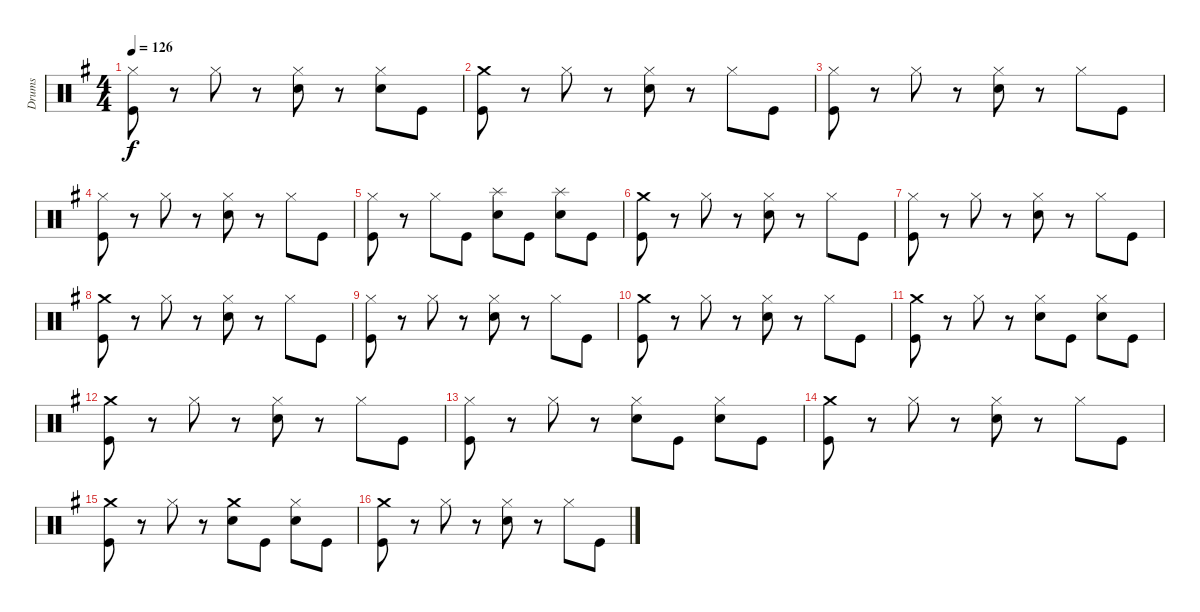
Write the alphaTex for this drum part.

\track ("Drums" "Drums") {instrument percussion}
\staff {score}
\articulation defaults
\ts (4 4)
\tempo 126
\clef neutral
\ks g
("Kick (hit)" "Hi-Hat (closed)").8{dy f} r.8 "Hi-Hat (closed)".8 r.8 ("Electric Snare (hit)" "Hi-Hat (closed)").8 r.8 ("Electric Snare (hit)" "Hi-Hat (closed)").8 "Kick (hit)".8 |
("Kick (hit)" "Crash medium (hit)").8 r.8 "Hi-Hat (closed)".8 r.8 ("Electric Snare (hit)" "Hi-Hat (closed)").8 r.8 "Hi-Hat (closed)".8 "Kick (hit)".8 |
("Kick (hit)" "Hi-Hat (closed)").8 r.8 "Hi-Hat (closed)".8 r.8 ("Electric Snare (hit)" "Hi-Hat (closed)").8 r.8 "Hi-Hat (closed)".8 "Kick (hit)".8 |
("Kick (hit)" "Hi-Hat (closed)").8 r.8 "Hi-Hat (closed)".8 r.8 ("Electric Snare (hit)" "Hi-Hat (closed)").8 r.8 "Hi-Hat (closed)".8 "Kick (hit)".8 |
("Kick (hit)" "Hi-Hat (closed)").8 r.8 "Hi-Hat (closed)".8 "Kick (hit)".8 ("Electric Snare (hit)" "Splash (hit)").8 "Kick (hit)".8 ("Electric Snare (hit)" "Splash (hit)").8 "Kick (hit)".8 |
("Kick (hit)" "Crash medium (hit)").8 r.8 "Hi-Hat (closed)".8 r.8 ("Electric Snare (hit)" "Hi-Hat (closed)").8 r.8 "Hi-Hat (closed)".8 "Kick (hit)".8 |
("Kick (hit)" "Hi-Hat (closed)").8 r.8 "Hi-Hat (closed)".8 r.8 ("Electric Snare (hit)" "Hi-Hat (closed)").8 r.8 "Hi-Hat (closed)".8 "Kick (hit)".8 |
("Kick (hit)" "Crash medium (hit)").8 r.8 "Hi-Hat (closed)".8 r.8 ("Electric Snare (hit)" "Hi-Hat (closed)").8 r.8 "Hi-Hat (closed)".8 "Kick (hit)".8 |
("Kick (hit)" "Hi-Hat (closed)").8 r.8 "Hi-Hat (closed)".8 r.8 ("Electric Snare (hit)" "Hi-Hat (closed)").8 r.8 "Hi-Hat (closed)".8 "Kick (hit)".8 |
("Kick (hit)" "Crash medium (hit)").8 r.8 "Hi-Hat (closed)".8 r.8 ("Electric Snare (hit)" "Hi-Hat (closed)").8 r.8 "Hi-Hat (closed)".8 "Kick (hit)".8 |
("Kick (hit)" "Crash medium (hit)").8 r.8 "Hi-Hat (closed)".8 r.8 ("Electric Snare (hit)" "Hi-Hat (closed)").8 "Kick (hit)".8 ("Electric Snare (hit)" "Hi-Hat (closed)").8 "Kick (hit)".8 |
("Kick (hit)" "Crash medium (hit)").8 r.8 "Hi-Hat (closed)".8 r.8 ("Electric Snare (hit)" "Hi-Hat (closed)").8 r.8 "Hi-Hat (closed)".8 "Kick (hit)".8 |
("Kick (hit)" "Hi-Hat (closed)").8 r.8 "Hi-Hat (closed)".8 r.8 ("Electric Snare (hit)" "Hi-Hat (closed)").8 "Kick (hit)".8 ("Electric Snare (hit)" "Hi-Hat (closed)").8 "Kick (hit)".8 |
("Kick (hit)" "Crash medium (hit)").8 r.8 "Hi-Hat (closed)".8 r.8 ("Electric Snare (hit)" "Hi-Hat (closed)").8 r.8 "Hi-Hat (closed)".8 "Kick (hit)".8 |
("Kick (hit)" "Crash medium (hit)").8 r.8 "Hi-Hat (closed)".8 r.8 ("Electric Snare (hit)" "Crash medium (hit)").8 "Kick (hit)".8 ("Electric Snare (hit)" "Hi-Hat (closed)").8 "Kick (hit)".8 |
("Kick (hit)" "Crash medium (hit)").8 r.8 "Hi-Hat (closed)".8 r.8 ("Electric Snare (hit)" "Hi-Hat (closed)").8 r.8 "Hi-Hat (closed)".8 "Kick (hit)".8
